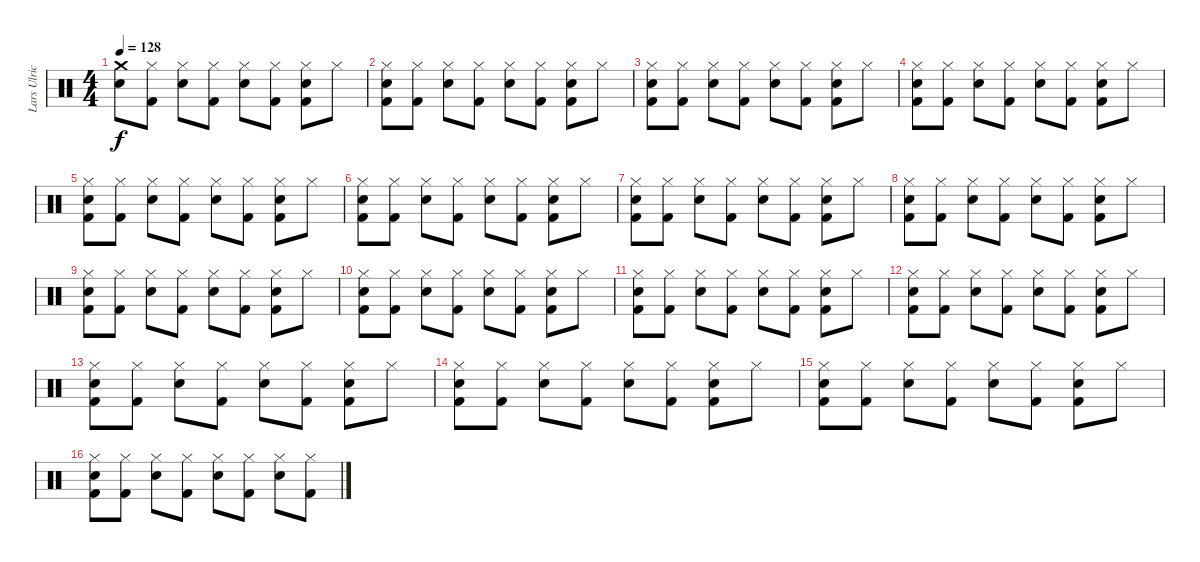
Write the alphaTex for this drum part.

\track ("Lars Ulrich" "Lars Ulric") {instrument percussion}
\staff {score}
\articulation defaults
\ts (4 4)
\tempo 128
\clef neutral
\ks c
("Crash medium (hit)" "Snare (hit) 2").8{dy f} ("Kick (hit) 2" "Hi-Hat (closed)").8 ("Snare (hit) 2" "Hi-Hat (closed)").8 ("Kick (hit) 2" "Hi-Hat (closed)").8 ("Hi-Hat (closed)" "Snare (hit) 2").8 ("Hi-Hat (closed)" "Kick (hit) 2").8 ("Snare (hit) 2" "Hi-Hat (closed)" "Kick (hit) 2").8 "Hi-Hat (closed)".8 |
("Kick (hit) 2" "Snare (hit) 2" "Hi-Hat (closed)").8 ("Hi-Hat (closed)" "Kick (hit) 2").8 ("Snare (hit) 2" "Hi-Hat (closed)").8 ("Kick (hit) 2" "Hi-Hat (closed)").8 ("Hi-Hat (closed)" "Snare (hit) 2").8 ("Kick (hit) 2" "Hi-Hat (closed)").8 ("Kick (hit) 2" "Hi-Hat (closed)" "Snare (hit) 2").8 "Hi-Hat (closed)".8 |
("Kick (hit) 2" "Snare (hit) 2" "Hi-Hat (closed)").8 ("Hi-Hat (closed)" "Kick (hit) 2").8 ("Snare (hit) 2" "Hi-Hat (closed)").8 ("Kick (hit) 2" "Hi-Hat (closed)").8 ("Hi-Hat (closed)" "Snare (hit) 2").8 ("Kick (hit) 2" "Hi-Hat (closed)").8 ("Kick (hit) 2" "Hi-Hat (closed)" "Snare (hit) 2").8 "Hi-Hat (closed)".8 |
("Kick (hit) 2" "Snare (hit) 2" "Hi-Hat (closed)").8 ("Hi-Hat (closed)" "Kick (hit) 2").8 ("Snare (hit) 2" "Hi-Hat (closed)").8 ("Kick (hit) 2" "Hi-Hat (closed)").8 ("Hi-Hat (closed)" "Snare (hit) 2").8 ("Kick (hit) 2" "Hi-Hat (closed)").8 ("Kick (hit) 2" "Hi-Hat (closed)" "Snare (hit) 2").8 "Hi-Hat (closed)".8 |
("Kick (hit) 2" "Snare (hit) 2" "Hi-Hat (closed)").8 ("Hi-Hat (closed)" "Kick (hit) 2").8 ("Snare (hit) 2" "Hi-Hat (closed)").8 ("Kick (hit) 2" "Hi-Hat (closed)").8 ("Hi-Hat (closed)" "Snare (hit) 2").8 ("Kick (hit) 2" "Hi-Hat (closed)").8 ("Kick (hit) 2" "Hi-Hat (closed)" "Snare (hit) 2").8 "Hi-Hat (closed)".8 |
("Kick (hit) 2" "Snare (hit) 2" "Hi-Hat (closed)").8 ("Hi-Hat (closed)" "Kick (hit) 2").8 ("Snare (hit) 2" "Hi-Hat (closed)").8 ("Kick (hit) 2" "Hi-Hat (closed)").8 ("Hi-Hat (closed)" "Snare (hit) 2").8 ("Kick (hit) 2" "Hi-Hat (closed)").8 ("Kick (hit) 2" "Hi-Hat (closed)" "Snare (hit) 2").8 "Hi-Hat (closed)".8 |
("Kick (hit) 2" "Snare (hit) 2" "Hi-Hat (closed)").8 ("Hi-Hat (closed)" "Kick (hit) 2").8 ("Snare (hit) 2" "Hi-Hat (closed)").8 ("Kick (hit) 2" "Hi-Hat (closed)").8 ("Hi-Hat (closed)" "Snare (hit) 2").8 ("Kick (hit) 2" "Hi-Hat (closed)").8 ("Kick (hit) 2" "Hi-Hat (closed)" "Snare (hit) 2").8 "Hi-Hat (closed)".8 |
("Kick (hit) 2" "Snare (hit) 2" "Hi-Hat (closed)").8 ("Hi-Hat (closed)" "Kick (hit) 2").8 ("Snare (hit) 2" "Hi-Hat (closed)").8 ("Kick (hit) 2" "Hi-Hat (closed)").8 ("Hi-Hat (closed)" "Snare (hit) 2").8 ("Kick (hit) 2" "Hi-Hat (closed)").8 ("Kick (hit) 2" "Hi-Hat (closed)" "Snare (hit) 2").8 "Hi-Hat (closed)".8 |
("Kick (hit) 2" "Snare (hit) 2" "Hi-Hat (closed)").8 ("Hi-Hat (closed)" "Kick (hit) 2").8 ("Snare (hit) 2" "Hi-Hat (closed)").8 ("Kick (hit) 2" "Hi-Hat (closed)").8 ("Hi-Hat (closed)" "Snare (hit) 2").8 ("Kick (hit) 2" "Hi-Hat (closed)").8 ("Kick (hit) 2" "Hi-Hat (closed)" "Snare (hit) 2").8 "Hi-Hat (closed)".8 |
("Kick (hit) 2" "Snare (hit) 2" "Hi-Hat (closed)").8 ("Hi-Hat (closed)" "Kick (hit) 2").8 ("Snare (hit) 2" "Hi-Hat (closed)").8 ("Kick (hit) 2" "Hi-Hat (closed)").8 ("Hi-Hat (closed)" "Snare (hit) 2").8 ("Kick (hit) 2" "Hi-Hat (closed)").8 ("Kick (hit) 2" "Hi-Hat (closed)" "Snare (hit) 2").8 "Hi-Hat (closed)".8 |
("Kick (hit) 2" "Snare (hit) 2" "Hi-Hat (closed)").8 ("Hi-Hat (closed)" "Kick (hit) 2").8 ("Snare (hit) 2" "Hi-Hat (closed)").8 ("Kick (hit) 2" "Hi-Hat (closed)").8 ("Hi-Hat (closed)" "Snare (hit) 2").8 ("Kick (hit) 2" "Hi-Hat (closed)").8 ("Kick (hit) 2" "Hi-Hat (closed)" "Snare (hit) 2").8 "Hi-Hat (closed)".8 |
("Kick (hit) 2" "Snare (hit) 2" "Hi-Hat (closed)").8 ("Hi-Hat (closed)" "Kick (hit) 2").8 ("Snare (hit) 2" "Hi-Hat (closed)").8 ("Kick (hit) 2" "Hi-Hat (closed)").8 ("Hi-Hat (closed)" "Snare (hit) 2").8 ("Kick (hit) 2" "Hi-Hat (closed)").8 ("Kick (hit) 2" "Hi-Hat (closed)" "Snare (hit) 2").8 "Hi-Hat (closed)".8 |
("Kick (hit) 2" "Snare (hit) 2" "Hi-Hat (closed)").8 ("Hi-Hat (closed)" "Kick (hit) 2").8 ("Snare (hit) 2" "Hi-Hat (closed)").8 ("Kick (hit) 2" "Hi-Hat (closed)").8 ("Hi-Hat (closed)" "Snare (hit) 2").8 ("Kick (hit) 2" "Hi-Hat (closed)").8 ("Kick (hit) 2" "Hi-Hat (closed)" "Snare (hit) 2").8 "Hi-Hat (closed)".8 |
("Kick (hit) 2" "Snare (hit) 2" "Hi-Hat (closed)").8 ("Hi-Hat (closed)" "Kick (hit) 2").8 ("Snare (hit) 2" "Hi-Hat (closed)").8 ("Kick (hit) 2" "Hi-Hat (closed)").8 ("Hi-Hat (closed)" "Snare (hit) 2").8 ("Kick (hit) 2" "Hi-Hat (closed)").8 ("Kick (hit) 2" "Hi-Hat (closed)" "Snare (hit) 2").8 "Hi-Hat (closed)".8 |
("Kick (hit) 2" "Snare (hit) 2" "Hi-Hat (closed)").8 ("Hi-Hat (closed)" "Kick (hit) 2").8 ("Snare (hit) 2" "Hi-Hat (closed)").8 ("Kick (hit) 2" "Hi-Hat (closed)").8 ("Hi-Hat (closed)" "Snare (hit) 2").8 ("Kick (hit) 2" "Hi-Hat (closed)").8 ("Kick (hit) 2" "Hi-Hat (closed)" "Snare (hit) 2").8 "Hi-Hat (closed)".8 |
("Kick (hit) 2" "Snare (hit) 2" "Hi-Hat (closed)").8 ("Hi-Hat (closed)" "Kick (hit) 2").8 ("Snare (hit) 2" "Hi-Hat (closed)").8 ("Kick (hit) 2" "Hi-Hat (closed)").8 ("Hi-Hat (closed)" "Snare (hit) 2").8 ("Kick (hit) 2" "Hi-Hat (closed)").8 ("Hi-Hat (closed)" "Snare (hit) 2").8 ("Kick (hit) 2" "Hi-Hat (closed)").8
